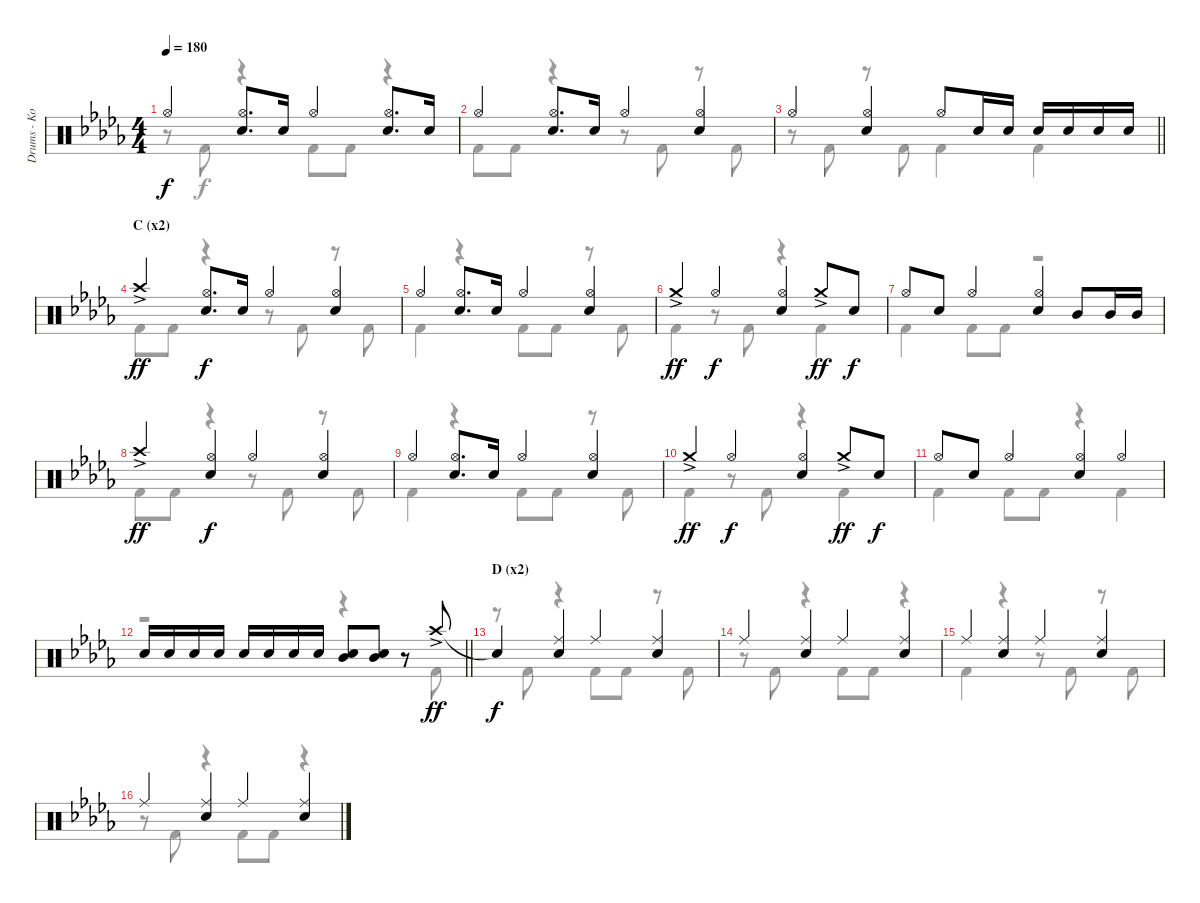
\track ("Drums - Koji Hasegawa" "Drums - Ko") {instrument percussion}
\staff {score}
\articulation defaults
\voice
\ts (4 4)
\tempo 180
\clef neutral
\ks db "Hi-Hat (open)".4{dy f}
("Hi-Hat (open)" "Snare (hit) 2").8{d} "Snare (hit) 2".16 "Hi-Hat (open)".4 ("Hi-Hat (open)" "Snare (hit) 2").8{d} "Snare (hit) 2".16 |
"Hi-Hat (open)".4 ("Hi-Hat (open)" "Snare (hit) 2").8{d} "Snare (hit) 2".16 "Hi-Hat (open)".4 ("Hi-Hat (open)" "Snare (hit) 2").4 |
\barLineRight lightlight "Hi-Hat (open)".4
("Hi-Hat (open)" "Snare (hit) 2").4 "Hi-Hat (open)".8 "Snare (hit) 2".16 "Snare (hit) 2".16 "Snare (hit) 2".16 "Snare (hit) 2".16 "Snare (hit) 2".16 "Snare (hit) 2".16 |
\section ("" "C (x2)")
"Crash high (hit)"{ac}.4{dy ff} ("Hi-Hat (open)" "Snare (hit) 2").8{d dy f} "Snare (hit) 2".16 "Hi-Hat (open)".4 ("Hi-Hat (open)" "Snare (hit) 2").4 |
"Hi-Hat (open)".4 ("Hi-Hat (open)" "Snare (hit) 2").8{d} "Snare (hit) 2".16 "Hi-Hat (open)".4 ("Hi-Hat (open)" "Snare (hit) 2").4 |
"Crash medium (hit)"{ac}.4{dy ff} "Hi-Hat (open)".4{dy f} ("Hi-Hat (open)" "Snare (hit) 2").4 "Crash medium (hit)"{ac}.8{dy ff} "Snare (hit) 2".8{dy f} |
"Hi-Hat (open)".8 "Snare (hit) 2".8 "Hi-Hat (open)".4 ("Hi-Hat (open)" "Snare (hit) 2").4 "Mid Tom (hit)".8 "Mid Tom (hit)".16 "Mid Tom (hit)".16 |
"Crash high (hit)"{ac}.4{dy ff} ("Hi-Hat (open)" "Snare (hit) 2").4{dy f} "Hi-Hat (open)".4 ("Hi-Hat (open)" "Snare (hit) 2").4 |
"Hi-Hat (open)".4 ("Hi-Hat (open)" "Snare (hit) 2").8{d} "Snare (hit) 2".16 "Hi-Hat (open)".4 ("Hi-Hat (open)" "Snare (hit) 2").4 |
"Crash medium (hit)"{ac}.4{dy ff} "Hi-Hat (open)".4{dy f} ("Hi-Hat (open)" "Snare (hit) 2").4 "Crash medium (hit)"{ac}.8{dy ff} "Snare (hit) 2".8{dy f} |
"Hi-Hat (open)".8 "Snare (hit) 2".8 "Hi-Hat (open)".4 ("Hi-Hat (open)" "Snare (hit) 2").4 "Hi-Hat (open)".4 |
\barLineRight lightlight "Snare (hit) 2".16 "Snare (hit) 2".16 "Snare (hit) 2".16 "Snare (hit) 2".16 "Snare (hit) 2".16 "Snare (hit) 2".16 "Snare (hit) 2".16 "Snare (hit) 2".16
("Mid Tom (hit)" "Snare (hit) 2").8 ("Mid Tom (hit)" "Snare (hit) 2").8 r.8 "Crash high (hit)"{ac}.8{dy ff} |
\section ("" "D (x2)")
"Snare (hit)"{t}.4{dy f} ("Ride (middle)" "Snare (hit) 2").4 "Ride (middle)".4 ("Ride (middle)" "Snare (hit) 2").4 |
"Ride (middle)".4 ("Ride (middle)" "Snare (hit) 2").4 "Ride (middle)".4 ("Ride (middle)" "Snare (hit) 2").4 |
"Ride (middle)".4 ("Ride (middle)" "Snare (hit) 2").4 "Ride (middle)".4 ("Ride (middle)" "Snare (hit) 2").4 |
"Ride (middle)".4 ("Ride (middle)" "Snare (hit) 2").4 "Ride (middle)".4 ("Ride (middle)" "Snare (hit) 2").4
\voice
\clef neutral
\ottava regular
\simile none
\ks db
r.8{dy f} "Kick (hit) 2".8 r.4 "Kick (hit) 2".8 "Kick (hit) 2".8 r.4 |
"Kick (hit) 2".8 "Kick (hit) 2".8 r.4 r.8 "Kick (hit) 2".8 r.8 "Kick (hit) 2".8 |
\barLineRight lightlight
r.8 "Kick (hit) 2".8 r.8 "Kick (hit) 2".8 "Kick (hit) 2".4 "Kick (hit) 2".4 |
"Kick (hit) 2".8 "Kick (hit) 2".8 r.4 r.8 "Kick (hit) 2".8 r.8 "Kick (hit) 2".8 |
"Kick (hit) 2".4 r.4 "Kick (hit) 2".8 "Kick (hit) 2".8 r.8 "Kick (hit) 2".8 |
"Kick (hit) 2".4 r.8 "Kick (hit) 2".8 r.4 "Kick (hit) 2".4 |
"Kick (hit) 2".4 "Kick (hit) 2".8 "Kick (hit) 2".8 r.2 |
"Kick (hit) 2".8 "Kick (hit) 2".8 r.4 r.8 "Kick (hit) 2".8 r.8 "Kick (hit) 2".8 |
"Kick (hit) 2".4 r.4 "Kick (hit) 2".8 "Kick (hit) 2".8 r.8 "Kick (hit) 2".8 |
"Kick (hit) 2".4 r.8 "Kick (hit) 2".8 r.4 "Kick (hit) 2".4 |
"Kick (hit) 2".4 "Kick (hit) 2".8 "Kick (hit) 2".8 r.4 "Kick (hit) 2".4 |
\barLineRight lightlight
r.2 r.4 r.8 "Kick (hit) 2".8 |
r.8 "Kick (hit) 2".8 r.4 "Kick (hit) 2".8 "Kick (hit) 2".8 r.8 "Kick (hit) 2".8 |
r.8 "Kick (hit) 2".8 r.4 "Kick (hit) 2".8 "Kick (hit) 2".8 r.4 |
"Kick (hit) 2".4 r.4 r.8 "Kick (hit) 2".8 r.8 "Kick (hit) 2".8 |
r.8 "Kick (hit) 2".8 r.4 "Kick (hit) 2".8 "Kick (hit) 2".8 r.4
